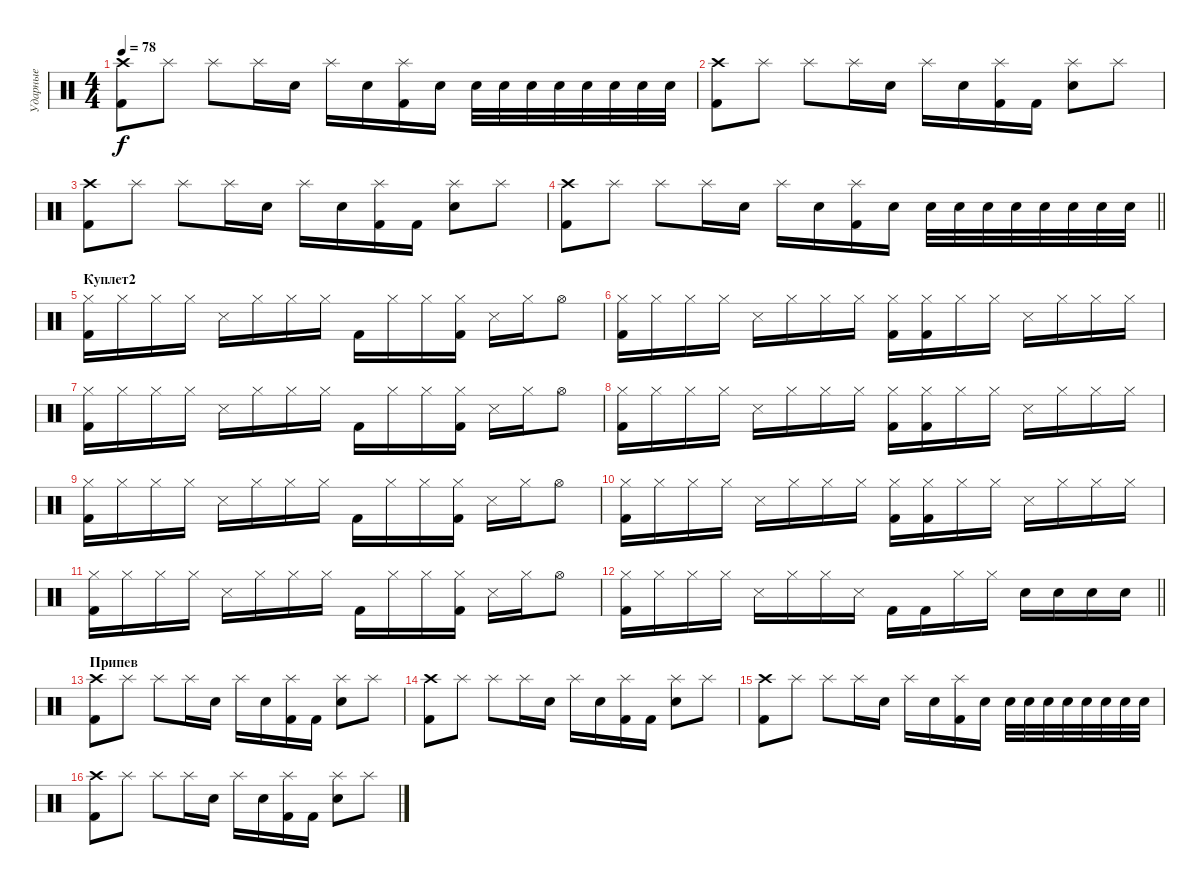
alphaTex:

\track ("Ударные" "Ударные") {instrument percussion}
\staff {score}
\articulation defaults
\ts (4 4)
\tempo 78
\clef neutral
\ks c
("Crash high (hit)" "Kick (hit) 2").8{dy f} "Splash (hit)".8 "Splash (hit)".8 "Splash (hit)".16 "Electric Snare (hit)".16 "Splash (hit)".16 "Electric Snare (hit)".16 ("Splash (hit)" "Kick (hit) 2").16 "Electric Snare (hit)".16 "Snare (hit) 2".32 "Snare (hit) 2".32 "Snare (hit) 2".32 "Snare (hit) 2".32 "Snare (hit) 2".32 "Snare (hit) 2".32 "Snare (hit) 2".32 "Snare (hit) 2".32 |
("Crash high (hit)" "Kick (hit) 2").8 "Splash (hit)".8 "Splash (hit)".8 "Splash (hit)".16 "Electric Snare (hit)".16 "Splash (hit)".16 "Electric Snare (hit)".16 ("Splash (hit)" "Kick (hit) 2").16 "Kick (hit) 2".16 ("Splash (hit)" "Electric Snare (hit)").8 "Splash (hit)".8 |
("Crash high (hit)" "Kick (hit) 2").8 "Splash (hit)".8 "Splash (hit)".8 "Splash (hit)".16 "Electric Snare (hit)".16 "Splash (hit)".16 "Electric Snare (hit)".16 ("Splash (hit)" "Kick (hit) 2").16 "Kick (hit) 2".16 ("Splash (hit)" "Electric Snare (hit)").8 "Splash (hit)".8 |
\barLineRight lightlight
("Crash high (hit)" "Kick (hit) 2").8 "Splash (hit)".8 "Splash (hit)".8 "Splash (hit)".16 "Electric Snare (hit)".16 "Splash (hit)".16 "Electric Snare (hit)".16 ("Splash (hit)" "Kick (hit) 2").16 "Electric Snare (hit)".16 "Snare (hit) 2".32 "Snare (hit) 2".32 "Snare (hit) 2".32 "Snare (hit) 2".32 "Snare (hit) 2".32 "Snare (hit) 2".32 "Snare (hit) 2".32 "Snare (hit) 2".32 |
\section ("" "Куплет2")
("Kick (hit) 2" "Hi-Hat (closed)").16 "Hi-Hat (closed)".16 "Hi-Hat (closed)".16 "Hi-Hat (closed)".16 "Snare (side stick) 3".16 "Hi-Hat (closed)".16 "Hi-Hat (closed)".16 "Hi-Hat (closed)".16 "Kick (hit) 2".16 "Hi-Hat (closed)".16 "Hi-Hat (closed)".16 ("Kick (hit) 2" "Hi-Hat (closed)").16 "Snare (side stick) 3".16 "Hi-Hat (closed)".16 "Hi-Hat (open)".8 |
("Hi-Hat (closed)" "Kick (hit) 2").16 "Hi-Hat (closed)".16 "Hi-Hat (closed)".16 "Hi-Hat (closed)".16 "Snare (side stick) 3".16 "Hi-Hat (closed)".16 "Hi-Hat (closed)".16 "Hi-Hat (closed)".16 ("Kick (hit) 2" "Hi-Hat (closed)").16 ("Hi-Hat (closed)" "Kick (hit) 2").16 "Hi-Hat (closed)".16 "Hi-Hat (closed)".16 "Snare (side stick) 3".16 "Hi-Hat (closed)".16 "Hi-Hat (closed)".16 "Hi-Hat (closed)".16 |
("Kick (hit) 2" "Hi-Hat (closed)").16 "Hi-Hat (closed)".16 "Hi-Hat (closed)".16 "Hi-Hat (closed)".16 "Snare (side stick) 3".16 "Hi-Hat (closed)".16 "Hi-Hat (closed)".16 "Hi-Hat (closed)".16 "Kick (hit) 2".16 "Hi-Hat (closed)".16 "Hi-Hat (closed)".16 ("Kick (hit) 2" "Hi-Hat (closed)").16 "Snare (side stick) 3".16 "Hi-Hat (closed)".16 "Hi-Hat (open)".8 |
("Hi-Hat (closed)" "Kick (hit) 2").16 "Hi-Hat (closed)".16 "Hi-Hat (closed)".16 "Hi-Hat (closed)".16 "Snare (side stick) 3".16 "Hi-Hat (closed)".16 "Hi-Hat (closed)".16 "Hi-Hat (closed)".16 ("Kick (hit) 2" "Hi-Hat (closed)").16 ("Hi-Hat (closed)" "Kick (hit) 2").16 "Hi-Hat (closed)".16 "Hi-Hat (closed)".16 "Snare (side stick) 3".16 "Hi-Hat (closed)".16 "Hi-Hat (closed)".16 "Hi-Hat (closed)".16 |
("Kick (hit) 2" "Hi-Hat (closed)").16 "Hi-Hat (closed)".16 "Hi-Hat (closed)".16 "Hi-Hat (closed)".16 "Snare (side stick) 3".16 "Hi-Hat (closed)".16 "Hi-Hat (closed)".16 "Hi-Hat (closed)".16 "Kick (hit) 2".16 "Hi-Hat (closed)".16 "Hi-Hat (closed)".16 ("Kick (hit) 2" "Hi-Hat (closed)").16 "Snare (side stick) 3".16 "Hi-Hat (closed)".16 "Hi-Hat (open)".8 |
("Hi-Hat (closed)" "Kick (hit) 2").16 "Hi-Hat (closed)".16 "Hi-Hat (closed)".16 "Hi-Hat (closed)".16 "Snare (side stick) 3".16 "Hi-Hat (closed)".16 "Hi-Hat (closed)".16 "Hi-Hat (closed)".16 ("Kick (hit) 2" "Hi-Hat (closed)").16 ("Hi-Hat (closed)" "Kick (hit) 2").16 "Hi-Hat (closed)".16 "Hi-Hat (closed)".16 "Snare (side stick) 3".16 "Hi-Hat (closed)".16 "Hi-Hat (closed)".16 "Hi-Hat (closed)".16 |
("Kick (hit) 2" "Hi-Hat (closed)").16 "Hi-Hat (closed)".16 "Hi-Hat (closed)".16 "Hi-Hat (closed)".16 "Snare (side stick) 3".16 "Hi-Hat (closed)".16 "Hi-Hat (closed)".16 "Hi-Hat (closed)".16 "Kick (hit) 2".16 "Hi-Hat (closed)".16 "Hi-Hat (closed)".16 ("Kick (hit) 2" "Hi-Hat (closed)").16 "Snare (side stick) 3".16 "Hi-Hat (closed)".16 "Hi-Hat (open)".8 |
\barLineRight lightlight
("Kick (hit) 2" "Hi-Hat (closed)").16 "Hi-Hat (closed)".16 "Hi-Hat (closed)".16 "Hi-Hat (closed)".16 "Snare (side stick) 3".16 "Hi-Hat (closed)".16 "Hi-Hat (closed)".16 "Snare (side stick) 3".16 "Kick (hit) 2".16 "Kick (hit) 2".16 "Hi-Hat (closed)".16 "Hi-Hat (closed)".16 "Electric Snare (hit)".16 "Electric Snare (hit)".16 "Electric Snare (hit)".16 "Electric Snare (hit)".16 |
\section ("" "Припев")
("Crash high (hit)" "Kick (hit) 2").8 "Splash (hit)".8 "Splash (hit)".8 "Splash (hit)".16 "Electric Snare (hit)".16 "Splash (hit)".16 "Electric Snare (hit)".16 ("Splash (hit)" "Kick (hit) 2").16 "Kick (hit) 2".16 ("Splash (hit)" "Electric Snare (hit)").8 "Splash (hit)".8 |
("Crash high (hit)" "Kick (hit) 2").8 "Splash (hit)".8 "Splash (hit)".8 "Splash (hit)".16 "Electric Snare (hit)".16 "Splash (hit)".16 "Electric Snare (hit)".16 ("Splash (hit)" "Kick (hit) 2").16 "Kick (hit) 2".16 ("Splash (hit)" "Electric Snare (hit)").8 "Splash (hit)".8 |
("Crash high (hit)" "Kick (hit) 2").8 "Splash (hit)".8 "Splash (hit)".8 "Splash (hit)".16 "Electric Snare (hit)".16 "Splash (hit)".16 "Electric Snare (hit)".16 ("Splash (hit)" "Kick (hit) 2").16 "Electric Snare (hit)".16 "Snare (hit) 2".32 "Snare (hit) 2".32 "Snare (hit) 2".32 "Snare (hit) 2".32 "Snare (hit) 2".32 "Snare (hit) 2".32 "Snare (hit) 2".32 "Snare (hit) 2".32 |
("Crash high (hit)" "Kick (hit) 2").8 "Splash (hit)".8 "Splash (hit)".8 "Splash (hit)".16 "Electric Snare (hit)".16 "Splash (hit)".16 "Electric Snare (hit)".16 ("Splash (hit)" "Kick (hit) 2").16 "Kick (hit) 2".16 ("Splash (hit)" "Electric Snare (hit)").8 "Splash (hit)".8
